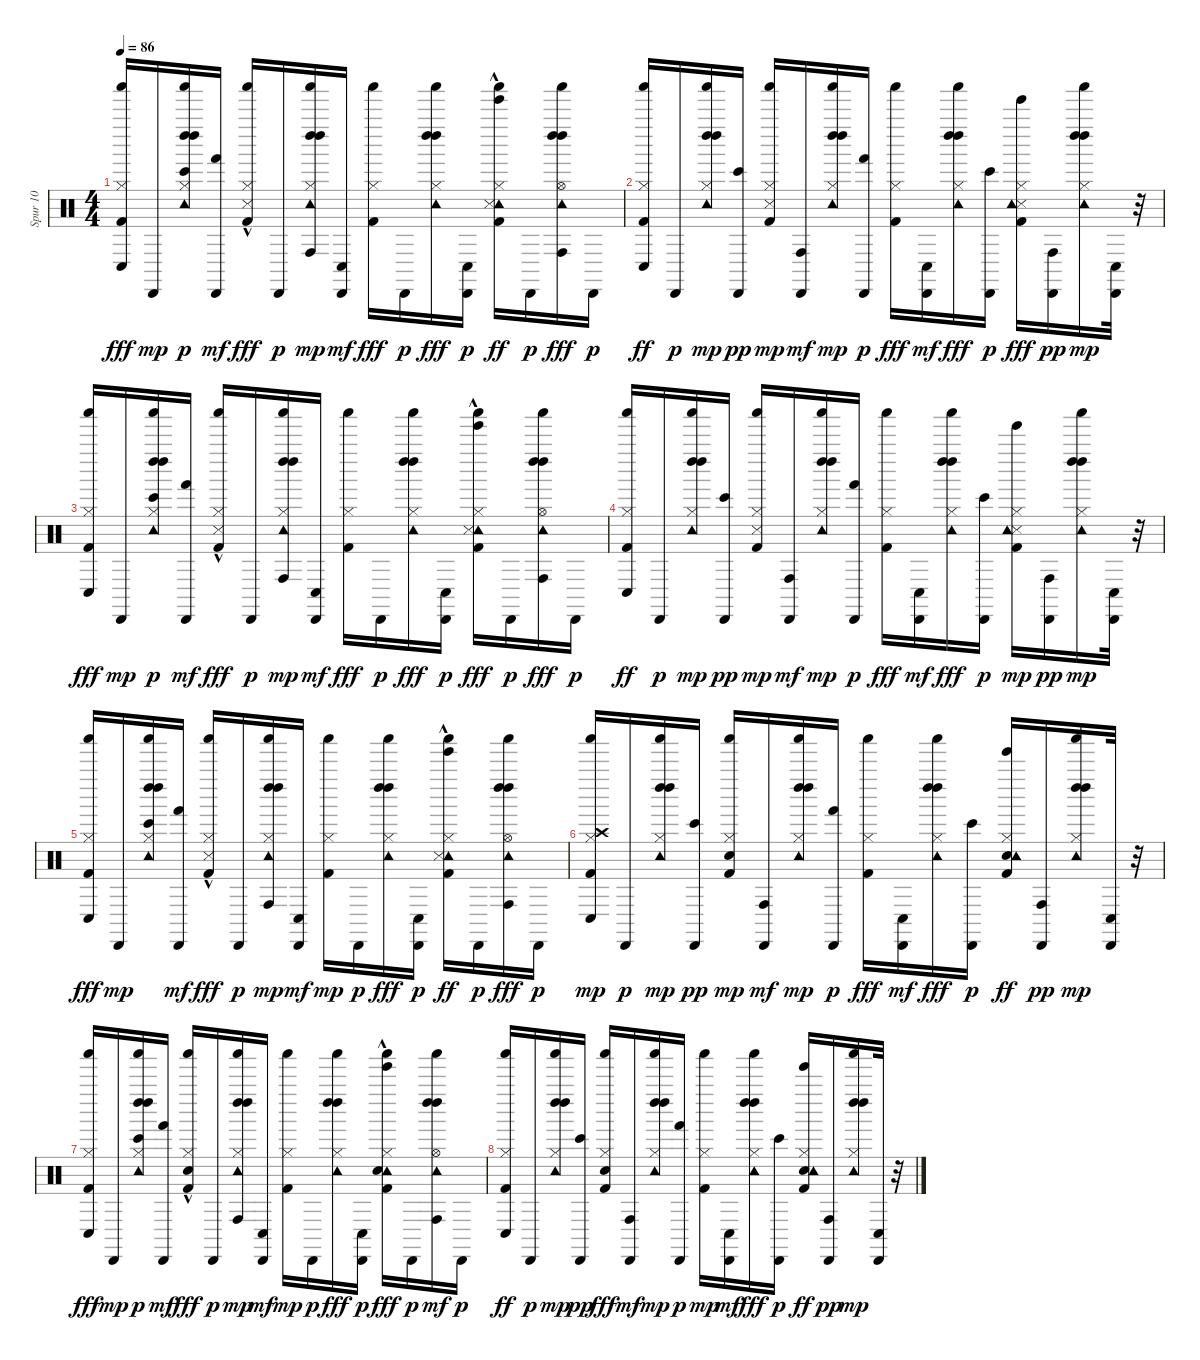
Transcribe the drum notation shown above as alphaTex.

\track ("Spur 10" "Spur 10") {instrument percussion}
\staff {score}
\articulation defaults
\ts (4 4)
\tempo 86
\clef neutral
\ks c
("Hi-Hat (closed)" "Kick (hit) 2" "Shaker (hit)" "Conga low (hit)").16{dy fff} "Cabasa (hit)".16{dy mp} ("Hi-Hat (closed)" "Shaker (hit)" "Bongo High (hit)" "Left Maraca (hit)" "Tambourine (hit)" "Left Maraca (hit)").16{dy p} ("Cabasa (hit)" "Hand (hit)").16{dy mf} ("Hi-Hat (closed)" "Snare (side stick) 3"{hac} "Shaker (hit)" "Kick (hit) 2").16{dy fff} "Cabasa (hit)".16{dy p} ("Conga high (hit)" "Shaker (hit)" "Hi-Hat (closed)" "Left Maraca (hit)" "Tambourine (hit)" "Left Maraca (hit)").16{dy mp} ("Cabasa (hit)" "Conga low (hit)").16{dy mf} ("Hi-Hat (closed)" "Shaker (hit)" "Kick (hit) 2").16{dy fff} "Cabasa (hit)".16{dy p} ("Shaker (hit)" "Hi-Hat (closed)" "Left Maraca (hit)" "Tambourine (hit)" "Left Maraca (hit)").16{dy fff} ("Cabasa (hit)" "Conga low (hit)").16{dy p} ("Hi-Hat (closed)" "Tambourine (hit)"{hac} "Shaker (hit)" "Kick (hit) 2" "Snare (side stick) 3"{hac} "Tinkle Bell (hit)"{hac}).16{dy ff} "Cabasa (hit)".16{dy p} ("Hi-Hat (open)" "Shaker (hit)" "Conga high (hit)" "Left Maraca (hit)" "Tambourine (hit)" "Left Maraca (hit)").16{dy fff} "Cabasa (hit)".16{dy p} |
("Hi-Hat (closed)" "Shaker (hit)" "Kick (hit) 2" "Conga low (hit)").16{dy ff} "Cabasa (hit)".16{dy p} ("Shaker (hit)" "Hi-Hat (closed)" "Left Maraca (hit)" "Tambourine (hit)" "Left Maraca (hit)").16{dy mp} ("Bongo High (hit)" "Cabasa (hit)").16{dy pp} ("Shaker (hit)" "Kick (hit) 2" "Snare (side stick) 3" "Hi-Hat (closed)").16{dy mp} ("Cabasa (hit)" "Conga high (hit)").16{dy mf} ("Shaker (hit)" "Hi-Hat (closed)" "Left Maraca (hit)" "Tambourine (hit)" "Left Maraca (hit)").16{dy mp} ("Hand (hit)" "Cabasa (hit)").16{dy p} ("Hi-Hat (closed)" "Shaker (hit)" "Kick (hit) 2").16{dy fff} ("Cabasa (hit)" "Conga low (hit)").16{dy mf} ("Hi-Hat (closed)" "Shaker (hit)" "Left Maraca (hit)" "Tambourine (hit)" "Left Maraca (hit)").16{dy fff} ("Bongo High (hit)" "Cabasa (hit)").16{dy p} ("Hi-Hat (closed)" "Tinkle Bell (hit)" "Kick (hit) 2" "Snare (side stick) 3" "Tambourine (hit)").16{dy fff} ("Conga high (hit)" "Cabasa (hit)").16{dy pp} ("Hi-Hat (closed)" "Shaker (hit)" "Left Maraca (hit)" "Tambourine (hit)" "Left Maraca (hit)").16{dy mp} ("Conga low (hit)" "Cabasa (hit)").32 r.32 |
("Hi-Hat (closed)" "Kick (hit) 2" "Shaker (hit)" "Conga low (hit)").16{dy fff} "Cabasa (hit)".16{dy mp} ("Hi-Hat (closed)" "Shaker (hit)" "Bongo High (hit)" "Tambourine (hit)" "Left Maraca (hit)" "Left Maraca (hit)").16{dy p} ("Cabasa (hit)" "Hand (hit)").16{dy mf} ("Hi-Hat (closed)" "Snare (side stick) 3"{hac} "Shaker (hit)" "Kick (hit) 2").16{dy fff} "Cabasa (hit)".16{dy p} ("Hi-Hat (closed)" "Conga high (hit)" "Shaker (hit)" "Tambourine (hit)" "Left Maraca (hit)" "Left Maraca (hit)").16{dy mp} ("Cabasa (hit)" "Conga low (hit)").16{dy mf} ("Hi-Hat (closed)" "Shaker (hit)" "Kick (hit) 2").16{dy fff} "Cabasa (hit)".16{dy p} ("Hi-Hat (closed)" "Shaker (hit)" "Tambourine (hit)" "Left Maraca (hit)" "Left Maraca (hit)").16{dy fff} ("Cabasa (hit)" "Conga low (hit)").16{dy p} ("Hi-Hat (closed)" "Tinkle Bell (hit)"{hac} "Tambourine (hit)"{hac} "Shaker (hit)" "Kick (hit) 2" "Snare (side stick) 3"{hac}).16{dy fff} "Cabasa (hit)".16{dy p} ("Hi-Hat (open)" "Shaker (hit)" "Conga high (hit)" "Tambourine (hit)" "Left Maraca (hit)" "Left Maraca (hit)").16{dy fff} "Cabasa (hit)".16{dy p} |
("Hi-Hat (closed)" "Shaker (hit)" "Kick (hit) 2" "Conga low (hit)").16{dy ff} "Cabasa (hit)".16{dy p} ("Shaker (hit)" "Hi-Hat (closed)" "Left Maraca (hit)" "Tambourine (hit)" "Left Maraca (hit)").16{dy mp} ("Bongo High (hit)" "Cabasa (hit)").16{dy pp} ("Shaker (hit)" "Kick (hit) 2" "Snare (side stick) 3" "Hi-Hat (closed)").16{dy mp} ("Cabasa (hit)" "Conga high (hit)").16{dy mf} ("Shaker (hit)" "Hi-Hat (closed)" "Left Maraca (hit)" "Tambourine (hit)" "Left Maraca (hit)").16{dy mp} ("Hand (hit)" "Cabasa (hit)").16{dy p} ("Hi-Hat (closed)" "Shaker (hit)" "Kick (hit) 2").16{dy fff} ("Cabasa (hit)" "Conga low (hit)").16{dy mf} ("Shaker (hit)" "Hi-Hat (closed)" "Left Maraca (hit)" "Tambourine (hit)" "Left Maraca (hit)").16{dy fff} ("Bongo High (hit)" "Cabasa (hit)").16{dy p} ("Snare (side stick) 3" "Kick (hit) 2" "Tambourine (hit)" "Tinkle Bell (hit)" "Hi-Hat (closed)").16{dy mp} ("Conga high (hit)" "Cabasa (hit)").16{dy pp} ("Shaker (hit)" "Hi-Hat (closed)" "Left Maraca (hit)" "Tambourine (hit)" "Left Maraca (hit)").16{dy mp} ("Conga low (hit)" "Cabasa (hit)").32 r.32 |
("Hi-Hat (closed)" "Kick (hit) 2" "Shaker (hit)" "Conga low (hit)").16{dy fff} "Cabasa (hit)".16{dy mp} ("Shaker (hit)" "Bongo High (hit)" "Hi-Hat (closed)" "Tambourine (hit)" "Left Maraca (hit)" "Left Maraca (hit)").16 ("Cabasa (hit)" "Hand (hit)").16{dy mf} ("Hi-Hat (closed)" "Snare (side stick) 3"{hac} "Shaker (hit)" "Kick (hit) 2").16{dy fff} "Cabasa (hit)".16{dy p} ("Conga high (hit)" "Shaker (hit)" "Hi-Hat (closed)" "Tambourine (hit)" "Left Maraca (hit)" "Left Maraca (hit)").16{dy mp} ("Cabasa (hit)" "Conga low (hit)").16{dy mf} ("Shaker (hit)" "Kick (hit) 2" "Hi-Hat (closed)").16{dy mp} "Cabasa (hit)".16{dy p} ("Shaker (hit)" "Hi-Hat (closed)" "Tambourine (hit)" "Left Maraca (hit)" "Left Maraca (hit)").16{dy fff} ("Cabasa (hit)" "Conga low (hit)").16{dy p} ("Hi-Hat (closed)" "Tambourine (hit)"{hac} "Shaker (hit)" "Kick (hit) 2" "Snare (side stick) 3"{hac} "Tinkle Bell (hit)").16{dy ff} "Cabasa (hit)".16{dy p} ("Hi-Hat (open)" "Shaker (hit)" "Conga high (hit)" "Tambourine (hit)" "Left Maraca (hit)" "Left Maraca (hit)").16{dy fff} "Cabasa (hit)".16{dy p} |
("Shaker (hit)" "Kick (hit) 2" "Conga low (hit)" "Crash high (hit)" "Hi-Hat (closed)").16{dy mp} "Cabasa (hit)".16{dy p} ("Hi-Hat (closed)" "Shaker (hit)" "Left Maraca (hit)" "Tambourine (hit)" "Left Maraca (hit)").16{dy mp} ("Bongo High (hit)" "Cabasa (hit)").16{dy pp} ("Shaker (hit)" "Kick (hit) 2" "Snare (hit) 2" "Hi-Hat (closed)").16{dy mp} ("Cabasa (hit)" "Conga high (hit)").16{dy mf} ("Shaker (hit)" "Hi-Hat (closed)" "Left Maraca (hit)" "Tambourine (hit)" "Left Maraca (hit)").16{dy mp} ("Hand (hit)" "Cabasa (hit)").16{dy p} ("Hi-Hat (closed)" "Shaker (hit)" "Kick (hit) 2").16{dy fff} ("Cabasa (hit)" "Conga low (hit)").16{dy mf} ("Shaker (hit)" "Hi-Hat (closed)" "Left Maraca (hit)" "Tambourine (hit)" "Left Maraca (hit)").16{dy fff} ("Bongo High (hit)" "Cabasa (hit)").16{dy p} ("Hi-Hat (closed)" "Snare (hit) 2" "Kick (hit) 2" "Tambourine (hit)" "Tinkle Bell (hit)").16{dy ff} ("Conga high (hit)" "Cabasa (hit)").16{dy pp} ("Shaker (hit)" "Hi-Hat (closed)" "Left Maraca (hit)" "Tambourine (hit)" "Left Maraca (hit)").16{dy mp} ("Conga low (hit)" "Cabasa (hit)").32 r.32 |
("Hi-Hat (closed)" "Kick (hit) 2" "Shaker (hit)" "Conga low (hit)").16{dy fff} "Cabasa (hit)".16{dy mp} ("Hi-Hat (closed)" "Shaker (hit)" "Bongo High (hit)" "Left Maraca (hit)" "Tambourine (hit)" "Left Maraca (hit)").16{dy p} ("Cabasa (hit)" "Hand (hit)").16{dy mf} ("Hi-Hat (closed)" "Snare (hit) 2"{hac} "Shaker (hit)" "Kick (hit) 2").16{dy fff} "Cabasa (hit)".16{dy p} ("Conga high (hit)" "Shaker (hit)" "Hi-Hat (closed)" "Left Maraca (hit)" "Tambourine (hit)" "Left Maraca (hit)").16{dy mp} ("Cabasa (hit)" "Conga low (hit)").16{dy mf} ("Shaker (hit)" "Kick (hit) 2" "Hi-Hat (closed)").16{dy mp} "Cabasa (hit)".16{dy p} ("Shaker (hit)" "Hi-Hat (closed)" "Left Maraca (hit)" "Tambourine (hit)" "Left Maraca (hit)").16{dy fff} ("Cabasa (hit)" "Conga low (hit)").16{dy p} ("Tinkle Bell (hit)" "Tambourine (hit)"{hac} "Shaker (hit)" "Kick (hit) 2" "Snare (hit) 2"{hac} "Hi-Hat (closed)").16{dy fff} "Cabasa (hit)".16{dy p} ("Shaker (hit)" "Conga high (hit)" "Hi-Hat (open)" "Left Maraca (hit)" "Tambourine (hit)" "Left Maraca (hit)").16{dy mf} "Cabasa (hit)".16{dy p} |
("Hi-Hat (closed)" "Shaker (hit)" "Kick (hit) 2" "Conga low (hit)").16{dy ff} "Cabasa (hit)".16{dy p} ("Shaker (hit)" "Hi-Hat (closed)" "Left Maraca (hit)" "Tambourine (hit)" "Left Maraca (hit)").16{dy mp} ("Bongo High (hit)" "Cabasa (hit)").16{dy pp} ("Hi-Hat (closed)" "Shaker (hit)" "Kick (hit) 2" "Snare (hit) 2").16{dy fff} ("Cabasa (hit)" "Conga high (hit)").16{dy mf} ("Hi-Hat (closed)" "Shaker (hit)" "Left Maraca (hit)" "Tambourine (hit)" "Left Maraca (hit)").16{dy mp} ("Hand (hit)" "Cabasa (hit)").16{dy p} ("Shaker (hit)" "Kick (hit) 2" "Hi-Hat (closed)").16{dy mp} ("Cabasa (hit)" "Conga low (hit)").16{dy mf} ("Shaker (hit)" "Hi-Hat (closed)" "Left Maraca (hit)" "Tambourine (hit)" "Left Maraca (hit)").16{dy fff} ("Bongo High (hit)" "Cabasa (hit)").16{dy p} ("Hi-Hat (closed)" "Snare (hit) 2" "Kick (hit) 2" "Tambourine (hit)" "Tinkle Bell (hit)").16{dy ff} ("Conga high (hit)" "Cabasa (hit)").16{dy pp} ("Shaker (hit)" "Hi-Hat (closed)" "Left Maraca (hit)" "Tambourine (hit)" "Left Maraca (hit)").16{dy mp} ("Conga low (hit)" "Cabasa (hit)").32 r.32
